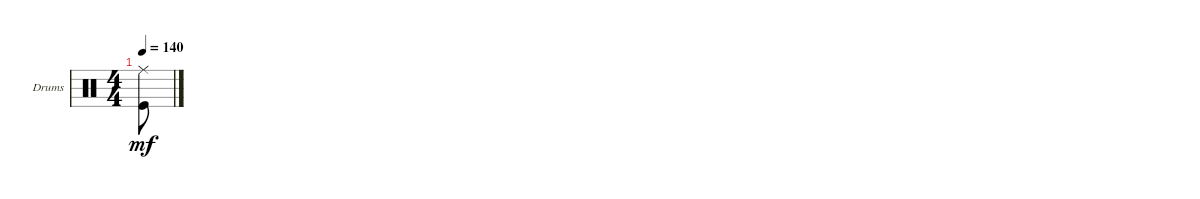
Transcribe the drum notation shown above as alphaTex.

\defaultSystemsLayout 4
\bracketExtendMode groupsimilarinstruments
\firstSystemTrackNameOrientation horizontal
\otherSystemsTrackNameOrientation horizontal
\track ("Drumkit" "Drums") {instrument percussion}
\staff {score}
\articulation defaults
\ts (4 4)
\tempo 140
\clef neutral
\scale
0.333333
\ks c
("Kick (hit)" "Ride (middle)").8{dy mf} |
\scale
0.333333 |
\scale
0.333333 |
\scale
0.333333 |
\scale
0.333333 |
\scale
0.333333
